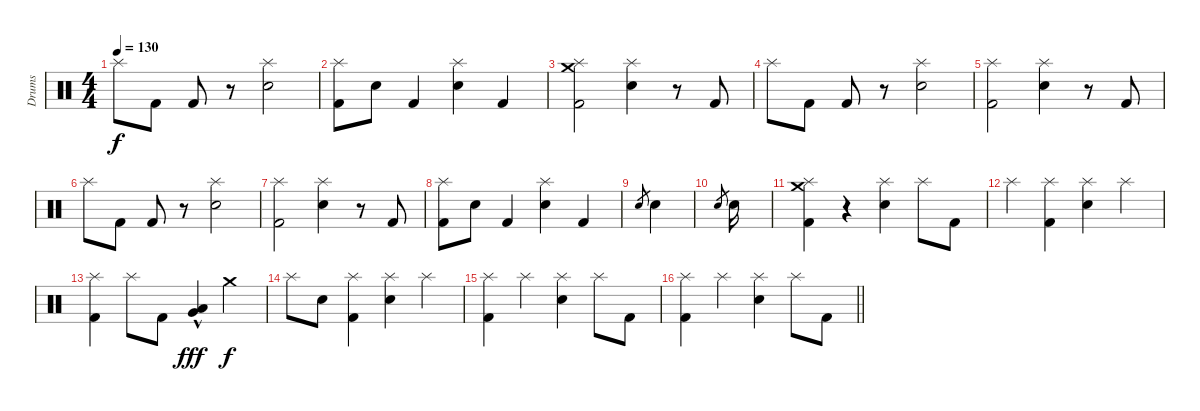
\track ("Drums" "Drums") {instrument percussion}
\staff {score}
\articulation defaults
\ts (4 4)
\tempo 130
\clef neutral
\ks c "Splash (hit)".8{dy f} "Kick (hit) 2".8 "Kick (hit) 2".8
r.8 ("Splash (hit)" "Electric Snare (hit)").2 |
("Kick (hit) 2" "Splash (hit)").8 "Electric Snare (hit)".8 "Kick (hit) 2".4 ("Electric Snare (hit)" "Splash (hit)").4 "Kick (hit) 2".4 |
("Crash medium (hit)" "Splash (hit)" "Kick (hit) 2").2 ("Splash (hit)" "Electric Snare (hit)").4 r.8 "Kick (hit) 2".8 |
"Splash (hit)".8 "Kick (hit) 2".8 "Kick (hit) 2".8 r.8 ("Splash (hit)" "Electric Snare (hit)").2 |
("Splash (hit)" "Kick (hit) 2").2 ("Splash (hit)" "Electric Snare (hit)").4 r.8 "Kick (hit) 2".8 |
"Splash (hit)".8 "Kick (hit) 2".8 "Kick (hit) 2".8 r.8 ("Splash (hit)" "Electric Snare (hit)").2 |
("Splash (hit)" "Kick (hit) 2").2 ("Splash (hit)" "Electric Snare (hit)").4 r.8 "Kick (hit) 2".8 |
("Kick (hit) 2" "Splash (hit)").8 "Electric Snare (hit)".8 "Kick (hit) 2".4 ("Electric Snare (hit)" "Splash (hit)").4 "Kick (hit) 2".4 |
"Electric Snare (hit)".8{gr} "Electric Snare (hit)".4 |
"Electric Snare (hit)".8{gr} "Electric Snare (hit)".16 |
("Kick (hit) 2" "Splash (hit)" "Crash medium (hit)").4 r.4 ("Electric Snare (hit)" "Splash (hit)").4 "Splash (hit)".8 "Kick (hit) 2".8 |
"Splash (hit)".4 ("Splash (hit)" "Kick (hit) 2").4 ("Splash (hit)" "Electric Snare (hit)").4 "Splash (hit)".4 |
("Splash (hit)" "Kick (hit) 2").4 "Splash (hit)".8 "Kick (hit) 2".8 ("Very Low Tom (hit)"{hac} "Low Floor Tom (hit)"{hac}).4{dy fff} "Crash medium (hit)".4{dy f} |
"Splash (hit)".8 "Electric Snare (hit)".8 ("Splash (hit)" "Kick (hit) 2").4 ("Splash (hit)" "Electric Snare (hit)").4 "Splash (hit)".4 |
("Splash (hit)" "Kick (hit) 2").4 "Splash (hit)".4 ("Splash (hit)" "Electric Snare (hit)").4 "Splash (hit)".8 "Kick (hit) 2".8 |
\barLineRight lightlight
("Splash (hit)" "Kick (hit) 2").4 "Splash (hit)".4 ("Splash (hit)" "Electric Snare (hit)").4 "Splash (hit)".8 "Kick (hit) 2".8
